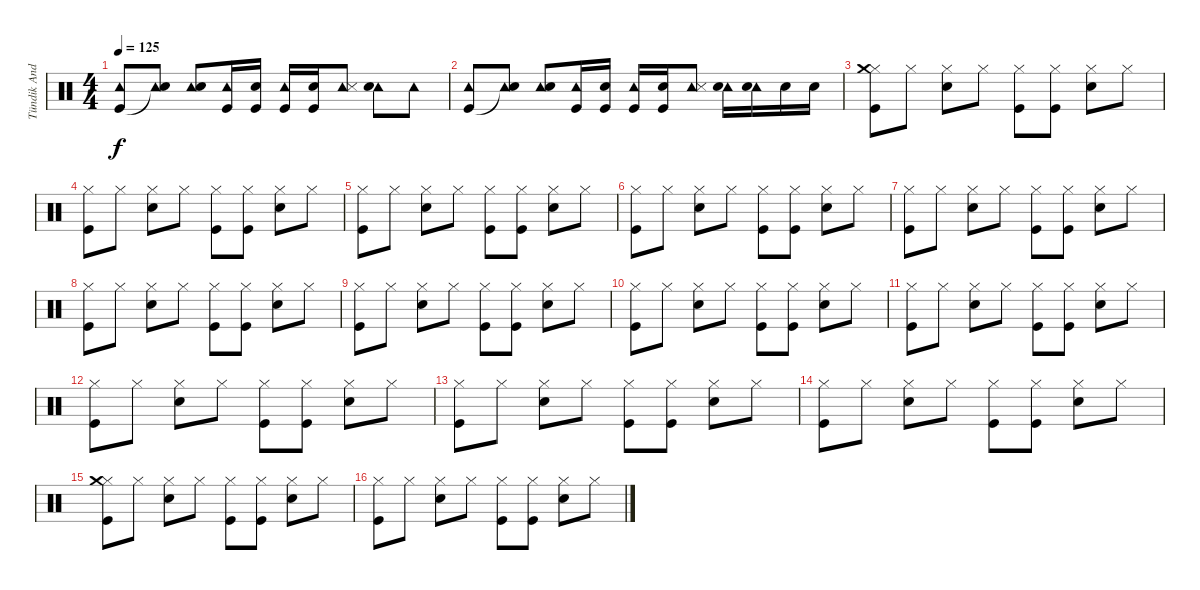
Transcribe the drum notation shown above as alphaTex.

\track ("Tündik András - Dob" "Tündik And") {instrument percussion}
\staff {score}
\articulation defaults
\ts (4 4)
\tempo 125
\clef neutral
\ks c
("Tambourine (hit)" "Kick (hit)").8{dy f} ("Tambourine (hit)" "Snare (hit)"{t}).8 ("Tambourine (hit)" "Snare (hit) 2").8 ("Tambourine (hit)" "Kick (hit)").16 ("Snare (hit) 2" "Kick (hit)").16 ("Tambourine (hit)" "Kick (hit)").16 ("Snare (hit) 2" "Kick (hit)").16 ("Tambourine (hit)" "Snare (side stick) 3").8 ("Tambourine (hit)" "Snare (hit) 2").8 "Tambourine (hit)".8 |
("Tambourine (hit)" "Kick (hit)").8 ("Tambourine (hit)" "Snare (hit)"{t}).8 ("Tambourine (hit)" "Snare (hit) 2").8 ("Tambourine (hit)" "Kick (hit)").16 ("Snare (hit) 2" "Kick (hit)").16 ("Tambourine (hit)" "Kick (hit)").16 ("Snare (hit) 2" "Kick (hit)").16 ("Tambourine (hit)" "Snare (side stick) 3").8 ("Tambourine (hit)" "Snare (hit) 2").16 ("Tambourine (hit)" "Snare (hit) 2").16 "Snare (hit) 2".16 "Snare (hit) 2".16 |
("Hi-Hat (closed)" "Crash medium (hit)" "Kick (hit)").8 "Hi-Hat (closed)".8 ("Hi-Hat (closed)" "Snare (hit) 2").8 "Hi-Hat (closed)".8 ("Hi-Hat (closed)" "Kick (hit)").8 ("Hi-Hat (closed)" "Kick (hit)").8 ("Hi-Hat (closed)" "Snare (hit) 2").8 "Hi-Hat (closed)".8 |
("Hi-Hat (closed)" "Kick (hit)").8 "Hi-Hat (closed)".8 ("Hi-Hat (closed)" "Snare (hit) 2").8 "Hi-Hat (closed)".8 ("Hi-Hat (closed)" "Kick (hit)").8 ("Hi-Hat (closed)" "Kick (hit)").8 ("Hi-Hat (closed)" "Snare (hit) 2").8 "Hi-Hat (closed)".8 |
("Hi-Hat (closed)" "Kick (hit)").8 "Hi-Hat (closed)".8 ("Hi-Hat (closed)" "Snare (hit) 2").8 "Hi-Hat (closed)".8 ("Hi-Hat (closed)" "Kick (hit)").8 ("Hi-Hat (closed)" "Kick (hit)").8 ("Hi-Hat (closed)" "Snare (hit) 2").8 "Hi-Hat (closed)".8 |
("Hi-Hat (closed)" "Kick (hit)").8 "Hi-Hat (closed)".8 ("Hi-Hat (closed)" "Snare (hit) 2").8 "Hi-Hat (closed)".8 ("Hi-Hat (closed)" "Kick (hit)").8 ("Hi-Hat (closed)" "Kick (hit)").8 ("Hi-Hat (closed)" "Snare (hit) 2").8 "Hi-Hat (closed)".8 |
("Hi-Hat (closed)" "Kick (hit)").8 "Hi-Hat (closed)".8 ("Hi-Hat (closed)" "Snare (hit) 2").8 "Hi-Hat (closed)".8 ("Hi-Hat (closed)" "Kick (hit)").8 ("Hi-Hat (closed)" "Kick (hit)").8 ("Hi-Hat (closed)" "Snare (hit) 2").8 "Hi-Hat (closed)".8 |
("Hi-Hat (closed)" "Kick (hit)").8 "Hi-Hat (closed)".8 ("Hi-Hat (closed)" "Snare (hit) 2").8 "Hi-Hat (closed)".8 ("Hi-Hat (closed)" "Kick (hit)").8 ("Hi-Hat (closed)" "Kick (hit)").8 ("Hi-Hat (closed)" "Snare (hit) 2").8 "Hi-Hat (closed)".8 |
("Hi-Hat (closed)" "Kick (hit)").8 "Hi-Hat (closed)".8 ("Hi-Hat (closed)" "Snare (hit) 2").8 "Hi-Hat (closed)".8 ("Hi-Hat (closed)" "Kick (hit)").8 ("Hi-Hat (closed)" "Kick (hit)").8 ("Hi-Hat (closed)" "Snare (hit) 2").8 "Hi-Hat (closed)".8 |
("Hi-Hat (closed)" "Kick (hit)").8 "Hi-Hat (closed)".8 ("Hi-Hat (closed)" "Snare (hit) 2").8 "Hi-Hat (closed)".8 ("Hi-Hat (closed)" "Kick (hit)").8 ("Hi-Hat (closed)" "Kick (hit)").8 ("Hi-Hat (closed)" "Snare (hit) 2").8 "Hi-Hat (closed)".8 |
("Hi-Hat (closed)" "Kick (hit)").8 "Hi-Hat (closed)".8 ("Hi-Hat (closed)" "Snare (hit) 2").8 "Hi-Hat (closed)".8 ("Hi-Hat (closed)" "Kick (hit)").8 ("Hi-Hat (closed)" "Kick (hit)").8 ("Hi-Hat (closed)" "Snare (hit) 2").8 "Hi-Hat (closed)".8 |
("Hi-Hat (closed)" "Kick (hit)").8 "Hi-Hat (closed)".8 ("Hi-Hat (closed)" "Snare (hit) 2").8 "Hi-Hat (closed)".8 ("Hi-Hat (closed)" "Kick (hit)").8 ("Hi-Hat (closed)" "Kick (hit)").8 ("Hi-Hat (closed)" "Snare (hit) 2").8 "Hi-Hat (closed)".8 |
("Hi-Hat (closed)" "Kick (hit)").8 "Hi-Hat (closed)".8 ("Hi-Hat (closed)" "Snare (hit) 2").8 "Hi-Hat (closed)".8 ("Hi-Hat (closed)" "Kick (hit)").8 ("Hi-Hat (closed)" "Kick (hit)").8 ("Hi-Hat (closed)" "Snare (hit) 2").8 "Hi-Hat (closed)".8 |
("Hi-Hat (closed)" "Kick (hit)").8 "Hi-Hat (closed)".8 ("Hi-Hat (closed)" "Snare (hit) 2").8 "Hi-Hat (closed)".8 ("Hi-Hat (closed)" "Kick (hit)").8 ("Hi-Hat (closed)" "Kick (hit)").8 ("Hi-Hat (closed)" "Snare (hit) 2").8 "Hi-Hat (closed)".8 |
("Hi-Hat (closed)" "Crash medium (hit)" "Kick (hit)").8 "Hi-Hat (closed)".8 ("Hi-Hat (closed)" "Snare (hit) 2").8 "Hi-Hat (closed)".8 ("Hi-Hat (closed)" "Kick (hit)").8 ("Hi-Hat (closed)" "Kick (hit)").8 ("Hi-Hat (closed)" "Snare (hit) 2").8 "Hi-Hat (closed)".8 |
("Hi-Hat (closed)" "Kick (hit)").8 "Hi-Hat (closed)".8 ("Hi-Hat (closed)" "Snare (hit) 2").8 "Hi-Hat (closed)".8 ("Hi-Hat (closed)" "Kick (hit)").8 ("Hi-Hat (closed)" "Kick (hit)").8 ("Hi-Hat (closed)" "Snare (hit) 2").8 "Hi-Hat (closed)".8
